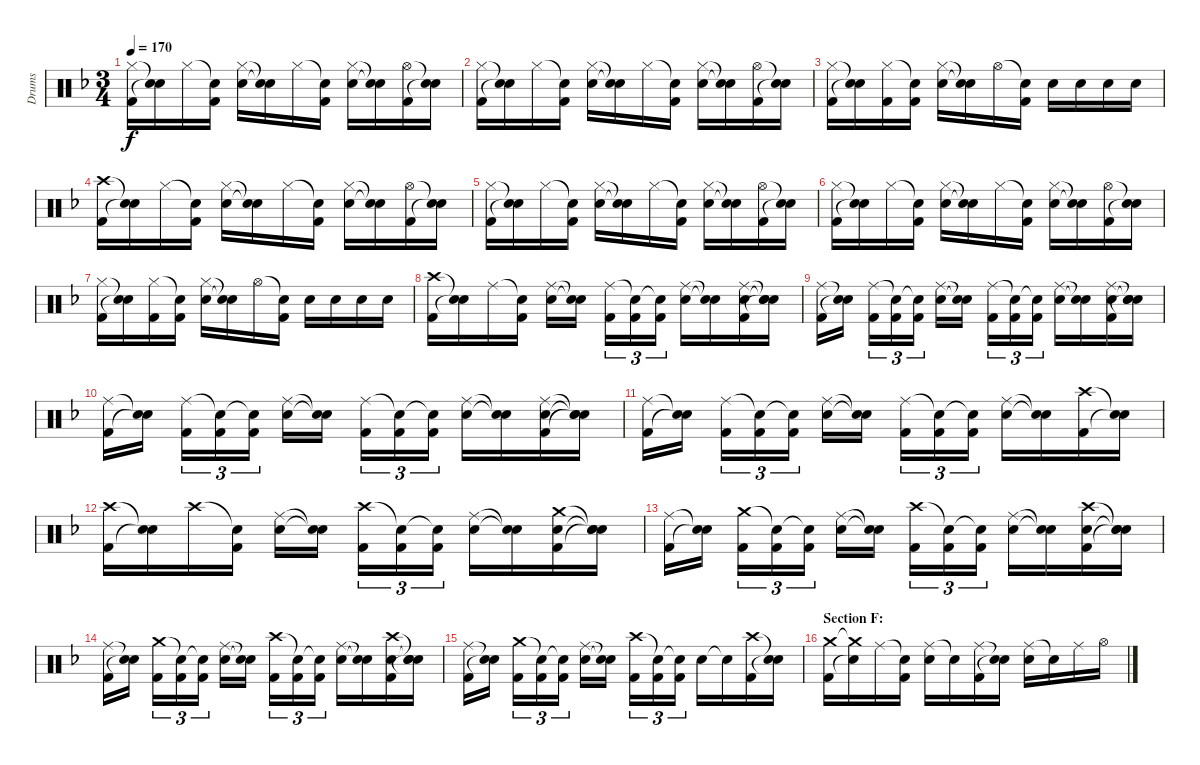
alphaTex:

\track ("Drums" "Drums") {instrument percussion}
\staff {score}
\articulation defaults
\ts (3 4)
\tempo 170
\clef neutral
\ks f
("Hi-Hat (closed)" "Kick (hit) 2").16{dy f} ("Snare (hit)"{t} "Snare (hit)"{t}).16 "Hi-Hat (closed)".16 ("Snare (hit)"{t} "Kick (hit) 2").16 ("Hi-Hat (closed)" "Snare (hit) 2").16 ("Snare (hit)"{t} "Snare (hit)"{t}).16 "Hi-Hat (closed)".16 ("Snare (hit)"{t} "Kick (hit) 2").16 ("Hi-Hat (closed)" "Snare (hit) 2").16 ("Snare (hit)"{t} "Snare (hit)"{t}).16 ("Hi-Hat (open)" "Kick (hit) 2").16 ("Snare (hit)"{t} "Snare (hit)"{t}).16 |
("Hi-Hat (closed)" "Kick (hit) 2").16 ("Snare (hit)"{t} "Snare (hit)"{t}).16 "Hi-Hat (closed)".16 ("Snare (hit)"{t} "Kick (hit) 2").16 ("Hi-Hat (closed)" "Snare (hit) 2").16 ("Snare (hit)"{t} "Snare (hit)"{t}).16 "Hi-Hat (closed)".16 ("Snare (hit)"{t} "Kick (hit) 2").16 ("Hi-Hat (closed)" "Snare (hit) 2").16 ("Snare (hit)"{t} "Snare (hit)"{t}).16 ("Hi-Hat (open)" "Kick (hit) 2").16 ("Snare (hit)"{t} "Snare (hit)"{t}).16 |
("Hi-Hat (closed)" "Kick (hit) 2").16 ("Snare (hit)"{t} "Snare (hit)"{t}).16 ("Hi-Hat (closed)" "Kick (hit) 2").16 ("Snare (hit)"{t} "Kick (hit) 2").16 ("Hi-Hat (closed)" "Snare (hit) 2").16 ("Snare (hit)"{t} "Snare (hit)"{t}).16 "Hi-Hat (open)".16 ("Snare (hit)"{t} "Kick (hit) 2").16 "Snare (hit) 2".16 "Snare (hit) 2".16 "Snare (hit) 2".16 "Snare (hit) 2".16 |
("Crash high (hit)" "Kick (hit) 2").16 ("Snare (hit)"{t} "Snare (hit)"{t}).16 "Hi-Hat (closed)".16 ("Snare (hit)"{t} "Kick (hit) 2").16 ("Hi-Hat (closed)" "Snare (hit) 2").16 ("Snare (hit)"{t} "Snare (hit)"{t}).16 "Hi-Hat (closed)".16 ("Snare (hit)"{t} "Kick (hit) 2").16 ("Hi-Hat (closed)" "Snare (hit) 2").16 ("Snare (hit)"{t} "Snare (hit)"{t}).16 ("Hi-Hat (open)" "Kick (hit) 2").16 ("Snare (hit)"{t} "Snare (hit)"{t}).16 |
("Hi-Hat (closed)" "Kick (hit) 2").16 ("Snare (hit)"{t} "Snare (hit)"{t}).16 "Hi-Hat (closed)".16 ("Snare (hit)"{t} "Kick (hit) 2").16 ("Hi-Hat (closed)" "Snare (hit) 2").16 ("Snare (hit)"{t} "Snare (hit)"{t}).16 "Hi-Hat (closed)".16 ("Snare (hit)"{t} "Kick (hit) 2").16 ("Hi-Hat (closed)" "Snare (hit) 2").16 ("Snare (hit)"{t} "Snare (hit)"{t}).16 ("Hi-Hat (open)" "Kick (hit) 2").16 ("Snare (hit)"{t} "Snare (hit)"{t}).16 |
("Hi-Hat (closed)" "Kick (hit) 2").16 ("Snare (hit)"{t} "Snare (hit)"{t}).16 "Hi-Hat (closed)".16 ("Snare (hit)"{t} "Kick (hit) 2").16 ("Hi-Hat (closed)" "Snare (hit) 2").16 ("Snare (hit)"{t} "Snare (hit)"{t}).16 "Hi-Hat (closed)".16 ("Snare (hit)"{t} "Kick (hit) 2").16 ("Hi-Hat (closed)" "Snare (hit) 2").16 ("Snare (hit)"{t} "Snare (hit)"{t}).16 ("Hi-Hat (open)" "Kick (hit) 2").16 ("Snare (hit)"{t} "Snare (hit)"{t}).16 |
("Hi-Hat (closed)" "Kick (hit) 2").16 ("Snare (hit)"{t} "Snare (hit)"{t}).16 ("Hi-Hat (closed)" "Kick (hit) 2").16 ("Snare (hit)"{t} "Kick (hit) 2").16 ("Hi-Hat (closed)" "Snare (hit) 2").16 ("Snare (hit)"{t} "Snare (hit)"{t}).16 "Hi-Hat (open)".16 ("Snare (hit)"{t} "Kick (hit) 2").16 "Snare (hit) 2".16 "Snare (hit) 2".16 "Snare (hit) 2".16 "Snare (hit) 2".16 |
("Crash high (hit)" "Kick (hit) 2").16 ("Snare (hit)"{t} "Snare (hit)"{t}).16 "Ride (middle)".16 ("Snare (hit)"{t} "Kick (hit) 2").16 ("Ride (middle)" "Snare (hit) 2").16 ("Snare (hit)"{t} "Snare (hit)"{t}).16 ("Ride (middle)" "Kick (hit) 2").16{tu (3 2)} ("Snare (hit)"{t} "Kick (hit) 2").16{tu (3 2)} ("Snare (hit)"{t} "Kick (hit) 2").16{tu (3 2)} ("Ride (middle)" "Snare (hit) 2").16 ("Snare (hit)"{t} "Snare (hit)"{t}).16 ("Ride (middle)" "Snare (hit) 2" "Kick (hit) 2").16 ("Snare (hit)"{t} "Snare (hit)"{t} "Snare (hit)"{t}).16 |
("Ride (middle)" "Kick (hit) 2").16 ("Snare (hit)"{t} "Snare (hit)"{t}).16 ("Ride (middle)" "Kick (hit) 2").16{tu (3 2)} ("Snare (hit)"{t} "Kick (hit) 2").16{tu (3 2)} ("Snare (hit)"{t} "Kick (hit) 2").16{tu (3 2)} ("Ride (middle)" "Snare (hit) 2").16 ("Snare (hit)"{t} "Snare (hit)"{t}).16 ("Ride (middle)" "Kick (hit) 2").16{tu (3 2)} ("Snare (hit)"{t} "Kick (hit) 2").16{tu (3 2)} ("Snare (hit)"{t} "Kick (hit) 2").16{tu (3 2)} ("Ride (middle)" "Snare (hit) 2").16 ("Snare (hit)"{t} "Snare (hit)"{t}).16 ("Ride (middle)" "Snare (hit) 2" "Kick (hit) 2").16 ("Snare (hit)"{t} "Snare (hit)"{t} "Snare (hit)"{t}).16 |
("Ride (middle)" "Kick (hit) 2").16 ("Snare (hit)"{t} "Snare (hit)"{t}).16 ("Ride (middle)" "Kick (hit) 2").16{tu (3 2)} ("Snare (hit)"{t} "Kick (hit) 2").16{tu (3 2)} ("Snare (hit)"{t} "Kick (hit) 2").16{tu (3 2)} ("Ride (middle)" "Snare (hit) 2").16 ("Snare (hit)"{t} "Snare (hit)"{t}).16 ("Ride (middle)" "Kick (hit) 2").16{tu (3 2)} ("Snare (hit)"{t} "Kick (hit) 2").16{tu (3 2)} ("Snare (hit)"{t} "Kick (hit) 2").16{tu (3 2)} ("Ride (middle)" "Snare (hit) 2").16 ("Snare (hit)"{t} "Snare (hit)"{t}).16 ("Ride (middle)" "Snare (hit) 2" "Kick (hit) 2").16 ("Snare (hit)"{t} "Snare (hit)"{t} "Snare (hit)"{t}).16 |
("Ride (middle)" "Kick (hit) 2").16 ("Snare (hit)"{t} "Snare (hit)"{t}).16 ("Ride (middle)" "Kick (hit) 2").16{tu (3 2)} ("Snare (hit)"{t} "Kick (hit) 2").16{tu (3 2)} ("Snare (hit)"{t} "Kick (hit) 2").16{tu (3 2)} ("Ride (middle)" "Snare (hit) 2").16 ("Snare (hit)"{t} "Snare (hit)"{t}).16 ("Ride (middle)" "Kick (hit) 2").16{tu (3 2)} ("Snare (hit)"{t} "Kick (hit) 2").16{tu (3 2)} ("Snare (hit)"{t} "Kick (hit) 2").16{tu (3 2)} ("Ride (middle)" "Snare (hit) 2").16 ("Snare (hit)"{t} "Snare (hit)"{t}).16 ("Crash high (hit)" "Kick (hit) 2").16 ("Snare (hit)"{t} "Snare (hit)"{t}).16 |
("Crash high (hit)" "Kick (hit) 2").16 ("Snare (hit)"{t} "Snare (hit)"{t}).16 "Crash high (hit)".16 ("Snare (hit)"{t} "Kick (hit) 2").16 ("Ride (middle)" "Snare (hit) 2").16 ("Snare (hit)"{t} "Snare (hit)"{t}).16 ("Crash high (hit)" "Kick (hit) 2").16{tu (3 2)} ("Snare (hit)"{t} "Kick (hit) 2").16{tu (3 2)} ("Snare (hit)"{t} "Kick (hit) 2").16{tu (3 2)} ("Ride (middle)" "Snare (hit) 2").16 ("Snare (hit)"{t} "Snare (hit)"{t}).16 ("Crash medium (hit)" "Snare (hit) 2" "Kick (hit) 2").16 ("Snare (hit)"{t} "Snare (hit)"{t} "Snare (hit)"{t}).16 |
("Ride (middle)" "Kick (hit) 2").16 ("Snare (hit)"{t} "Snare (hit)"{t}).16 ("Crash medium (hit)" "Kick (hit) 2").16{tu (3 2)} ("Snare (hit)"{t} "Kick (hit) 2").16{tu (3 2)} ("Snare (hit)"{t} "Kick (hit) 2").16{tu (3 2)} ("Ride (middle)" "Snare (hit) 2").16 ("Snare (hit)"{t} "Snare (hit)"{t}).16 ("Crash high (hit)" "Kick (hit) 2").16{tu (3 2)} ("Snare (hit)"{t} "Kick (hit) 2").16{tu (3 2)} ("Snare (hit)"{t} "Kick (hit) 2").16{tu (3 2)} ("Ride (middle)" "Snare (hit) 2").16 ("Snare (hit)"{t} "Snare (hit)"{t}).16 ("Crash high (hit)" "Snare (hit) 2" "Kick (hit) 2").16 ("Snare (hit)"{t} "Snare (hit)"{t} "Snare (hit)"{t}).16 |
("Ride (middle)" "Kick (hit) 2").16 ("Snare (hit)"{t} "Snare (hit)"{t}).16 ("Crash medium (hit)" "Kick (hit) 2").16{tu (3 2)} ("Snare (hit)"{t} "Kick (hit) 2").16{tu (3 2)} ("Snare (hit)"{t} "Kick (hit) 2").16{tu (3 2)} ("Ride (middle)" "Snare (hit) 2").16 ("Snare (hit)"{t} "Snare (hit)"{t}).16 ("Crash high (hit)" "Kick (hit) 2").16{tu (3 2)} ("Snare (hit)"{t} "Kick (hit) 2").16{tu (3 2)} ("Snare (hit)"{t} "Kick (hit) 2").16{tu (3 2)} ("Ride (middle)" "Snare (hit) 2").16 ("Snare (hit)"{t} "Snare (hit)"{t}).16 ("Crash high (hit)" "Snare (hit) 2" "Kick (hit) 2").16 ("Snare (hit)"{t} "Snare (hit)"{t} "Snare (hit)"{t}).16 |
("Ride (middle)" "Kick (hit) 2").16 ("Snare (hit)"{t} "Snare (hit)"{t}).16 ("Crash medium (hit)" "Kick (hit) 2").16{tu (3 2)} ("Snare (hit)"{t} "Kick (hit) 2").16{tu (3 2)} ("Snare (hit)"{t} "Kick (hit) 2").16{tu (3 2)} ("Ride (middle)" "Snare (hit) 2").16 ("Snare (hit)"{t} "Snare (hit)"{t}).16 ("Crash high (hit)" "Kick (hit) 2").16{tu (3 2)} ("Snare (hit)"{t} "Kick (hit) 2").16{tu (3 2)} ("Snare (hit)"{t} "Kick (hit) 2").16{tu (3 2)} "Snare (hit) 2".16 "Snare (hit)"{t}.16 ("Crash high (hit)" "Kick (hit) 2").16 ("Snare (hit)"{t} "Snare (hit)"{t}).16 |
\section ("" "Section F:")
("Crash medium (hit)" "Kick (hit) 2").16 ("Crash medium (hit)"{t} "Snare (hit)"{t}).16 "Ride (middle)".16 ("Snare (hit)"{t} "Kick (hit) 2").16 ("Ride (middle)" "Snare (hit) 2").16 "Snare (hit)"{t}.16 ("Ride (middle)" "Kick (hit) 2").16 ("Snare (hit)"{t} "Snare (hit)"{t}).16 ("Ride (middle)" "Snare (hit) 2").16 "Snare (hit)"{t}.16 "Ride (middle)".16 "Hi-Hat (open)".16
